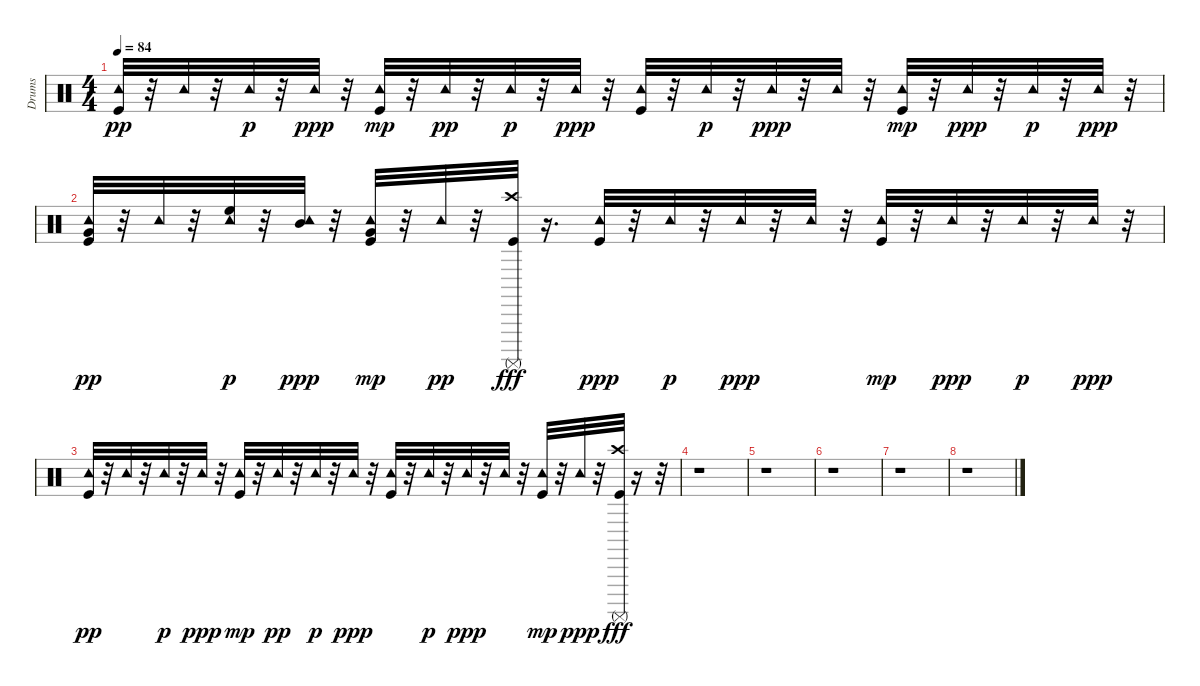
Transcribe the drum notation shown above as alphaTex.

\track ("Drums" "Drums") {instrument percussion}
\staff {score}
\articulation defaults
\ts (4 4)
\tempo 84
\clef neutral
\ks c
("Kick (hit)" "Tambourine (hit)").32{dy pp} r.32 "Tambourine (hit)".32 r.32 "Tambourine (hit)".32{dy p} r.32 "Tambourine (hit)".32{dy ppp} r.32 ("Kick (hit)" "Tambourine (hit)").32{dy mp} r.32 "Tambourine (hit)".32{dy pp} r.32 "Tambourine (hit)".32{dy p} r.32 "Tambourine (hit)".32{dy ppp} r.32 ("Kick (hit)" "Tambourine (hit)").32 r.32 "Tambourine (hit)".32{dy p} r.32 "Tambourine (hit)".32{dy ppp} r.32 "Tambourine (hit)".32 r.32 ("Kick (hit)" "Tambourine (hit)").32{dy mp} r.32 "Tambourine (hit)".32{dy ppp} r.32 "Tambourine (hit)".32{dy p} r.32 "Tambourine (hit)".32{dy ppp} r.32 |
("Very Low Tom (hit)" "Kick (hit)" "Tambourine (hit)").32{dy pp} r.32 "Tambourine (hit)".32 r.32 ("High Floor Tom (hit)" "Tambourine (hit)").32{dy p} r.32 ("Mid Tom (hit)" "Tambourine (hit)").32{dy ppp} r.32 ("Very Low Tom (hit)" "Kick (hit)" "Tambourine (hit)").32{dy mp} r.32 "Tambourine (hit)".32{dy pp} r.32 ("Crash high (hit)" "Surdo (mute)" "Kick (hit)").32{dy fff} r.16{d} ("Kick (hit)" "Tambourine (hit)").32{dy ppp} r.32 "Tambourine (hit)".32{dy p} r.32 "Tambourine (hit)".32{dy ppp} r.32 "Tambourine (hit)".32 r.32 ("Kick (hit)" "Tambourine (hit)").32{dy mp} r.32 "Tambourine (hit)".32{dy ppp} r.32 "Tambourine (hit)".32{dy p} r.32 "Tambourine (hit)".32{dy ppp} r.32 |
("Kick (hit)" "Tambourine (hit)").32{dy pp} r.32 "Tambourine (hit)".32 r.32 "Tambourine (hit)".32{dy p} r.32 "Tambourine (hit)".32{dy ppp} r.32 ("Kick (hit)" "Tambourine (hit)").32{dy mp} r.32 "Tambourine (hit)".32{dy pp} r.32 "Tambourine (hit)".32{dy p} r.32 "Tambourine (hit)".32{dy ppp} r.32 ("Kick (hit)" "Tambourine (hit)").32 r.32 "Tambourine (hit)".32{dy p} r.32 "Tambourine (hit)".32{dy ppp} r.32 "Tambourine (hit)".32 r.32 ("Kick (hit)" "Tambourine (hit)").32{dy mp} r.32 "Tambourine (hit)".32{dy ppp} r.32 ("Kick (hit)" "Surdo (mute)" "Crash high (hit)").32{dy fff} r.16 r.32 |
r.1 |
r.1 |
r.1 |
r.1 |
r.1
